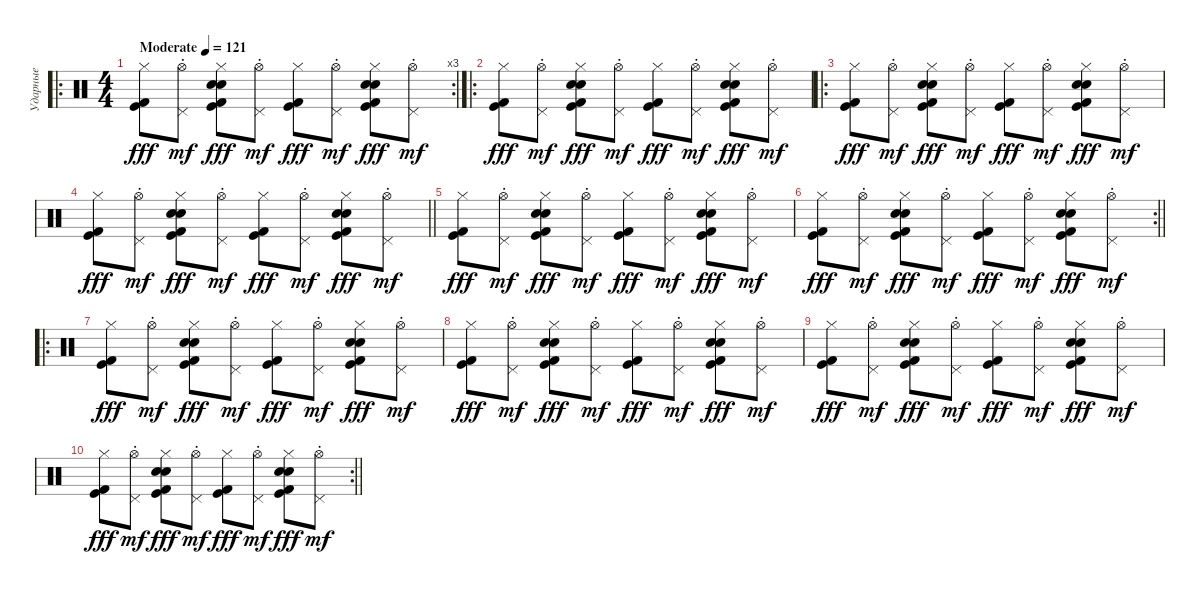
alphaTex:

\track ("Ударные" "Ударные") {instrument percussion}
\staff {score}
\articulation defaults
\ro
\rc 3
\ts (4 4)
\tempo (121 "Moderate")
\clef neutral
\ks c
("Hi-Hat (closed)" "Kick (hit)" "Kick (hit) 2").8{dy fff} ("Pedal Hi-Hat (hit)"{st} "Hi-Hat (open)"{st}).8{dy mf} ("Hi-Hat (closed)" "Hand Clap (hit)" "Snare (hit) 2" "Kick (hit)" "Kick (hit) 2").8{dy fff} ("Pedal Hi-Hat (hit)"{st} "Hi-Hat (open)"{st}).8{dy mf} ("Hi-Hat (closed)" "Kick (hit)" "Kick (hit) 2").8{dy fff} ("Pedal Hi-Hat (hit)"{st} "Hi-Hat (open)"{st}).8{dy mf} ("Hi-Hat (closed)" "Hand Clap (hit)" "Snare (hit) 2" "Kick (hit)" "Kick (hit) 2").8{dy fff} ("Pedal Hi-Hat (hit)"{st} "Hi-Hat (open)"{st}).8{dy mf} |
\ro
("Hi-Hat (closed)" "Kick (hit)" "Kick (hit) 2").8{dy fff} ("Pedal Hi-Hat (hit)"{st} "Hi-Hat (open)"{st}).8{dy mf} ("Hi-Hat (closed)" "Hand Clap (hit)" "Snare (hit) 2" "Kick (hit)" "Kick (hit) 2").8{dy fff} ("Pedal Hi-Hat (hit)"{st} "Hi-Hat (open)"{st}).8{dy mf} ("Hi-Hat (closed)" "Kick (hit)" "Kick (hit) 2").8{dy fff} ("Pedal Hi-Hat (hit)"{st} "Hi-Hat (open)"{st}).8{dy mf} ("Hi-Hat (closed)" "Hand Clap (hit)" "Snare (hit) 2" "Kick (hit)" "Kick (hit) 2").8{dy fff} ("Pedal Hi-Hat (hit)"{st} "Hi-Hat (open)"{st}).8{dy mf} |
\ro
("Hi-Hat (closed)" "Kick (hit)" "Kick (hit) 2").8{dy fff} ("Pedal Hi-Hat (hit)"{st} "Hi-Hat (open)"{st}).8{dy mf} ("Hi-Hat (closed)" "Hand Clap (hit)" "Snare (hit) 2" "Kick (hit)" "Kick (hit) 2").8{dy fff} ("Pedal Hi-Hat (hit)"{st} "Hi-Hat (open)"{st}).8{dy mf} ("Hi-Hat (closed)" "Kick (hit)" "Kick (hit) 2").8{dy fff} ("Pedal Hi-Hat (hit)"{st} "Hi-Hat (open)"{st}).8{dy mf} ("Hi-Hat (closed)" "Hand Clap (hit)" "Snare (hit) 2" "Kick (hit)" "Kick (hit) 2").8{dy fff} ("Pedal Hi-Hat (hit)"{st} "Hi-Hat (open)"{st}).8{dy mf} |
\barLineRight lightlight
("Hi-Hat (closed)" "Kick (hit)" "Kick (hit) 2").8{dy fff} ("Pedal Hi-Hat (hit)"{st} "Hi-Hat (open)"{st}).8{dy mf} ("Hi-Hat (closed)" "Hand Clap (hit)" "Snare (hit) 2" "Kick (hit)" "Kick (hit) 2").8{dy fff} ("Pedal Hi-Hat (hit)"{st} "Hi-Hat (open)"{st}).8{dy mf} ("Hi-Hat (closed)" "Kick (hit)" "Kick (hit) 2").8{dy fff} ("Pedal Hi-Hat (hit)"{st} "Hi-Hat (open)"{st}).8{dy mf} ("Hi-Hat (closed)" "Hand Clap (hit)" "Snare (hit) 2" "Kick (hit)" "Kick (hit) 2").8{dy fff} ("Pedal Hi-Hat (hit)"{st} "Hi-Hat (open)"{st}).8{dy mf} |
("Hi-Hat (closed)" "Kick (hit)" "Kick (hit) 2").8{dy fff} ("Pedal Hi-Hat (hit)"{st} "Hi-Hat (open)"{st}).8{dy mf} ("Hi-Hat (closed)" "Hand Clap (hit)" "Snare (hit) 2" "Kick (hit)" "Kick (hit) 2").8{dy fff} ("Pedal Hi-Hat (hit)"{st} "Hi-Hat (open)"{st}).8{dy mf} ("Hi-Hat (closed)" "Kick (hit)" "Kick (hit) 2").8{dy fff} ("Pedal Hi-Hat (hit)"{st} "Hi-Hat (open)"{st}).8{dy mf} ("Hi-Hat (closed)" "Hand Clap (hit)" "Snare (hit) 2" "Kick (hit)" "Kick (hit) 2").8{dy fff} ("Pedal Hi-Hat (hit)"{st} "Hi-Hat (open)"{st}).8{dy mf} |
\rc 2
\barLineRight lightlight
("Hi-Hat (closed)" "Kick (hit)" "Kick (hit) 2").8{dy fff} ("Pedal Hi-Hat (hit)"{st} "Hi-Hat (open)"{st}).8{dy mf} ("Hi-Hat (closed)" "Hand Clap (hit)" "Snare (hit) 2" "Kick (hit)" "Kick (hit) 2").8{dy fff} ("Pedal Hi-Hat (hit)"{st} "Hi-Hat (open)"{st}).8{dy mf} ("Hi-Hat (closed)" "Kick (hit)" "Kick (hit) 2").8{dy fff} ("Pedal Hi-Hat (hit)"{st} "Hi-Hat (open)"{st}).8{dy mf} ("Hi-Hat (closed)" "Hand Clap (hit)" "Snare (hit) 2" "Kick (hit)" "Kick (hit) 2").8{dy fff} ("Pedal Hi-Hat (hit)"{st} "Hi-Hat (open)"{st}).8{dy mf} |
\ro
("Hi-Hat (closed)" "Kick (hit)" "Kick (hit) 2").8{dy fff} ("Pedal Hi-Hat (hit)"{st} "Hi-Hat (open)"{st}).8{dy mf} ("Hi-Hat (closed)" "Hand Clap (hit)" "Snare (hit) 2" "Kick (hit)" "Kick (hit) 2").8{dy fff} ("Pedal Hi-Hat (hit)"{st} "Hi-Hat (open)"{st}).8{dy mf} ("Hi-Hat (closed)" "Kick (hit)" "Kick (hit) 2").8{dy fff} ("Pedal Hi-Hat (hit)"{st} "Hi-Hat (open)"{st}).8{dy mf} ("Hi-Hat (closed)" "Hand Clap (hit)" "Snare (hit) 2" "Kick (hit)" "Kick (hit) 2").8{dy fff} ("Pedal Hi-Hat (hit)"{st} "Hi-Hat (open)"{st}).8{dy mf} |
("Hi-Hat (closed)" "Kick (hit)" "Kick (hit) 2").8{dy fff} ("Pedal Hi-Hat (hit)"{st} "Hi-Hat (open)"{st}).8{dy mf} ("Hi-Hat (closed)" "Hand Clap (hit)" "Snare (hit) 2" "Kick (hit)" "Kick (hit) 2").8{dy fff} ("Pedal Hi-Hat (hit)"{st} "Hi-Hat (open)"{st}).8{dy mf} ("Hi-Hat (closed)" "Kick (hit)" "Kick (hit) 2").8{dy fff} ("Pedal Hi-Hat (hit)"{st} "Hi-Hat (open)"{st}).8{dy mf} ("Hi-Hat (closed)" "Hand Clap (hit)" "Snare (hit) 2" "Kick (hit)" "Kick (hit) 2").8{dy fff} ("Pedal Hi-Hat (hit)"{st} "Hi-Hat (open)"{st}).8{dy mf} |
("Hi-Hat (closed)" "Kick (hit)" "Kick (hit) 2").8{dy fff} ("Pedal Hi-Hat (hit)"{st} "Hi-Hat (open)"{st}).8{dy mf} ("Hi-Hat (closed)" "Hand Clap (hit)" "Snare (hit) 2" "Kick (hit)" "Kick (hit) 2").8{dy fff} ("Pedal Hi-Hat (hit)"{st} "Hi-Hat (open)"{st}).8{dy mf} ("Hi-Hat (closed)" "Kick (hit)" "Kick (hit) 2").8{dy fff} ("Pedal Hi-Hat (hit)"{st} "Hi-Hat (open)"{st}).8{dy mf} ("Hi-Hat (closed)" "Hand Clap (hit)" "Snare (hit) 2" "Kick (hit)" "Kick (hit) 2").8{dy fff} ("Pedal Hi-Hat (hit)"{st} "Hi-Hat (open)"{st}).8{dy mf} |
\rc 2
\barLineRight lightlight
("Hi-Hat (closed)" "Kick (hit)" "Kick (hit) 2").8{dy fff} ("Pedal Hi-Hat (hit)"{st} "Hi-Hat (open)"{st}).8{dy mf} ("Hi-Hat (closed)" "Hand Clap (hit)" "Snare (hit) 2" "Kick (hit)" "Kick (hit) 2").8{dy fff} ("Pedal Hi-Hat (hit)"{st} "Hi-Hat (open)"{st}).8{dy mf} ("Hi-Hat (closed)" "Kick (hit)" "Kick (hit) 2").8{dy fff} ("Pedal Hi-Hat (hit)"{st} "Hi-Hat (open)"{st}).8{dy mf} ("Hi-Hat (closed)" "Hand Clap (hit)" "Snare (hit) 2" "Kick (hit)" "Kick (hit) 2").8{dy fff} ("Pedal Hi-Hat (hit)"{st} "Hi-Hat (open)"{st}).8{dy mf}
